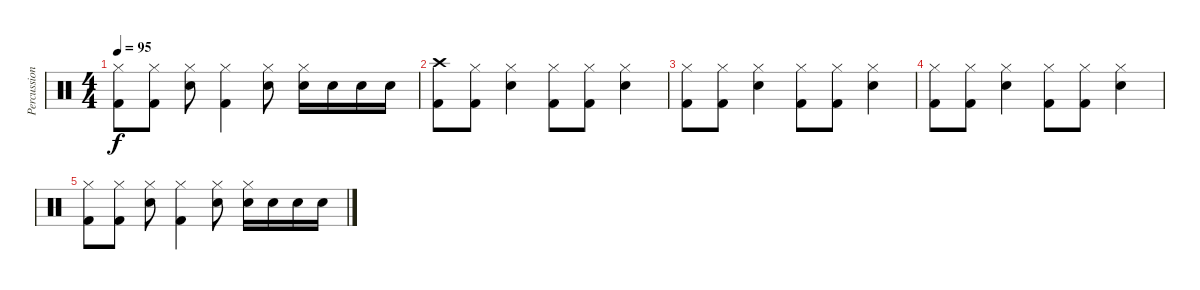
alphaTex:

\track ("Percussion" "Percussion") {instrument percussion}
\staff {score}
\articulation defaults
\ts (4 4)
\tempo 95
\clef neutral
\ks c
("Kick (hit) 2" "Hi-Hat (closed)").8{dy f} ("Kick (hit) 2" "Hi-Hat (closed)").8 ("Snare (hit) 2" "Hi-Hat (closed)").8 ("Kick (hit) 2" "Hi-Hat (closed)").4 ("Snare (hit) 2" "Hi-Hat (closed)").8 ("Snare (hit) 2" "Hi-Hat (closed)").16 "Snare (hit) 2".16 "Snare (hit) 2".16 "Snare (hit) 2".16 |
("Kick (hit) 2" "Crash high (hit)").8 ("Kick (hit) 2" "Hi-Hat (closed)").8 ("Snare (hit) 2" "Hi-Hat (closed)").4 ("Kick (hit) 2" "Hi-Hat (closed)").8 ("Kick (hit) 2" "Hi-Hat (closed)").8 ("Snare (hit) 2" "Hi-Hat (closed)").4 |
("Kick (hit) 2" "Hi-Hat (closed)").8 ("Kick (hit) 2" "Hi-Hat (closed)").8 ("Snare (hit) 2" "Hi-Hat (closed)").4 ("Kick (hit) 2" "Hi-Hat (closed)").8 ("Kick (hit) 2" "Hi-Hat (closed)").8 ("Snare (hit) 2" "Hi-Hat (closed)").4 |
("Kick (hit) 2" "Hi-Hat (closed)").8 ("Kick (hit) 2" "Hi-Hat (closed)").8 ("Snare (hit) 2" "Hi-Hat (closed)").4 ("Kick (hit) 2" "Hi-Hat (closed)").8 ("Kick (hit) 2" "Hi-Hat (closed)").8 ("Snare (hit) 2" "Hi-Hat (closed)").4 |
("Kick (hit) 2" "Hi-Hat (closed)").8 ("Kick (hit) 2" "Hi-Hat (closed)").8 ("Snare (hit) 2" "Hi-Hat (closed)").8 ("Kick (hit) 2" "Hi-Hat (closed)").4 ("Snare (hit) 2" "Hi-Hat (closed)").8 ("Snare (hit) 2" "Hi-Hat (closed)").16 "Snare (hit) 2".16 "Snare (hit) 2".16 "Snare (hit) 2".16
